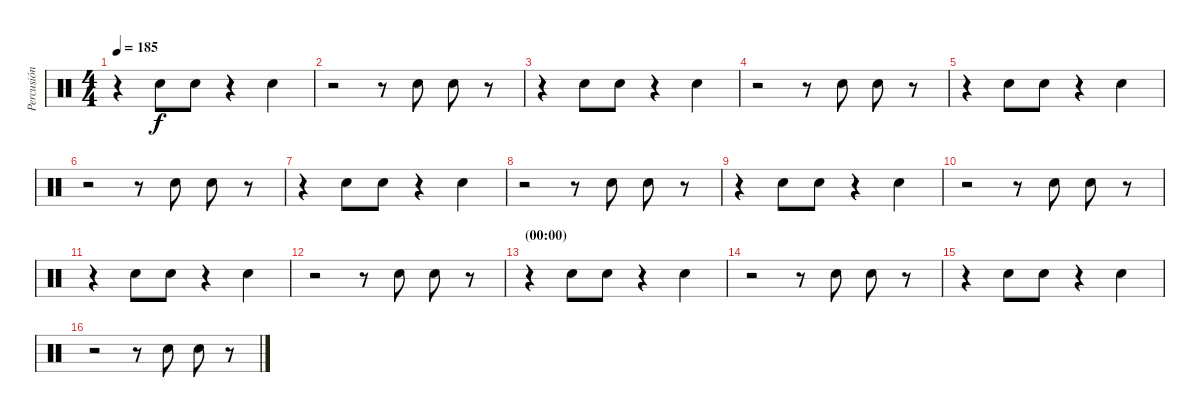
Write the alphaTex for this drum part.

\track ("Percusión" "Percusión") {instrument percussion}
\staff {score}
\articulation defaults
\ts (4 4)
\tempo 185
\clef neutral
\ks c
r.4{dy f} "Hand Clap (hit)".8 "Hand Clap (hit)".8 r.4 "Hand Clap (hit)".4 |
r.2 r.8 "Hand Clap (hit)".8 "Hand Clap (hit)".8 r.8 |
r.4 "Hand Clap (hit)".8 "Hand Clap (hit)".8 r.4 "Hand Clap (hit)".4 |
r.2 r.8 "Hand Clap (hit)".8 "Hand Clap (hit)".8 r.8 |
r.4 "Hand Clap (hit)".8 "Hand Clap (hit)".8 r.4 "Hand Clap (hit)".4 |
r.2 r.8 "Hand Clap (hit)".8 "Hand Clap (hit)".8 r.8 |
r.4 "Hand Clap (hit)".8 "Hand Clap (hit)".8 r.4 "Hand Clap (hit)".4 |
r.2 r.8 "Hand Clap (hit)".8 "Hand Clap (hit)".8 r.8 |
r.4 "Hand Clap (hit)".8 "Hand Clap (hit)".8 r.4 "Hand Clap (hit)".4 |
r.2 r.8 "Hand Clap (hit)".8 "Hand Clap (hit)".8 r.8 |
r.4 "Hand Clap (hit)".8 "Hand Clap (hit)".8 r.4 "Hand Clap (hit)".4 |
r.2 r.8 "Hand Clap (hit)".8 "Hand Clap (hit)".8 r.8 |
\section ("" "(00:00)")
r.4 "Hand Clap (hit)".8 "Hand Clap (hit)".8 r.4 "Hand Clap (hit)".4 |
r.2 r.8 "Hand Clap (hit)".8 "Hand Clap (hit)".8 r.8 |
r.4 "Hand Clap (hit)".8 "Hand Clap (hit)".8 r.4 "Hand Clap (hit)".4 |
r.2 r.8 "Hand Clap (hit)".8 "Hand Clap (hit)".8 r.8
